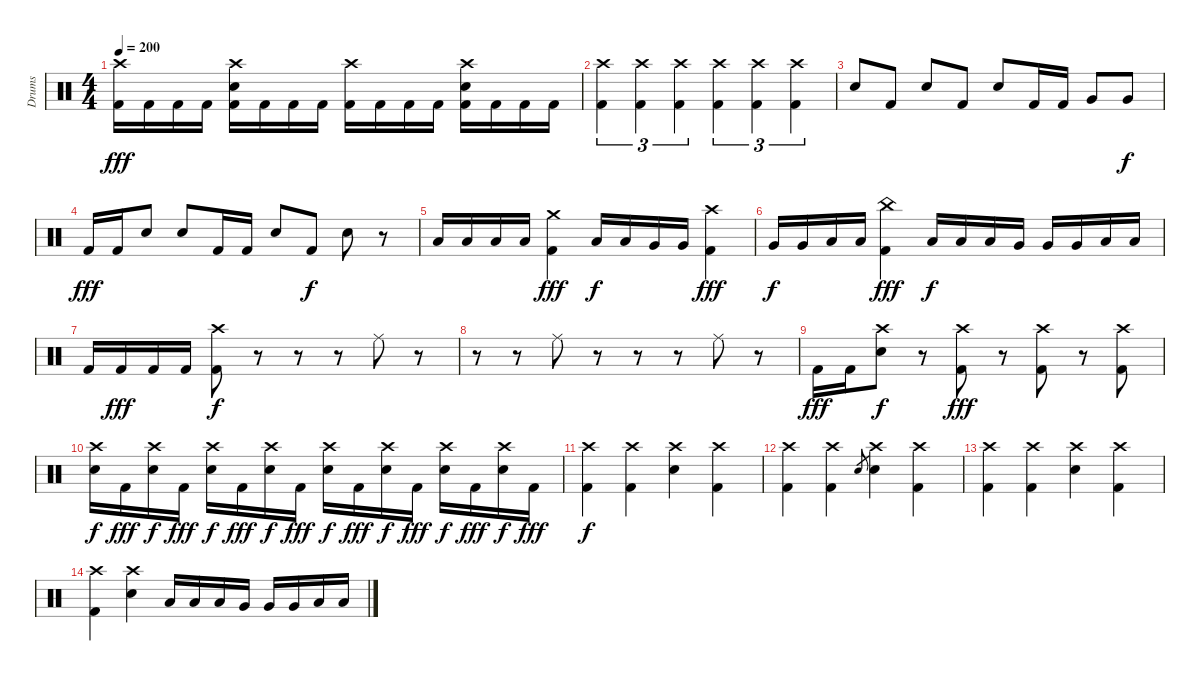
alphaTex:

\track ("Drums" "Drums") {instrument percussion}
\staff {score}
\articulation defaults
\ts (4 4)
\tempo 200
\clef neutral
\ks c
("Crash high (hit)" "Kick (hit) 2").16{dy fff} "Kick (hit) 2".16 "Kick (hit) 2".16 "Kick (hit) 2".16 ("Crash high (hit)" "Electric Snare (hit)" "Kick (hit) 2").16 "Kick (hit) 2".16 "Kick (hit) 2".16 "Kick (hit) 2".16 ("Crash high (hit)" "Kick (hit) 2").16 "Kick (hit) 2".16 "Kick (hit) 2".16 "Kick (hit) 2".16 ("Crash high (hit)" "Electric Snare (hit)" "Kick (hit) 2").16 "Kick (hit) 2".16 "Kick (hit) 2".16 "Kick (hit) 2".16 |
("Crash high (hit)" "Kick (hit) 2").4{tu (3 2)} ("Crash high (hit)" "Kick (hit) 2").4{tu (3 2)} ("Crash high (hit)" "Kick (hit) 2").4{tu (3 2)} ("Crash high (hit)" "Kick (hit) 2").4{tu (3 2)} ("Crash high (hit)" "Kick (hit) 2").4{tu (3 2)} ("Crash high (hit)" "Kick (hit) 2").4{tu (3 2)} |
"Electric Snare (hit)".8 "Kick (hit) 2".8 "Electric Snare (hit)".8 "Kick (hit) 2".8 "Electric Snare (hit)".8 "Kick (hit) 2".16 "Kick (hit) 2".16 "Very Low Tom (hit)".8 "Very Low Tom (hit)".8{dy f} |
"Kick (hit) 2".16{dy fff} "Kick (hit) 2".16 "Electric Snare (hit)".8 "Electric Snare (hit)".8 "Kick (hit) 2".16 "Kick (hit) 2".16 "Electric Snare (hit)".8 "Kick (hit) 2".8{dy f} "Electric Snare (hit)".8 r.8 |
"Low Floor Tom (hit)".16 "Low Floor Tom (hit)".16 "Low Floor Tom (hit)".16 "Low Floor Tom (hit)".16 ("Crash medium (hit)" "Kick (hit) 2").4{dy fff} "Low Tom (hit)".16{dy f} "Low Tom (hit)".16 "Very Low Tom (hit)".16 "Very Low Tom (hit)".16 ("Crash high (hit)" "Kick (hit) 2").4{dy fff} |
"Very Low Tom (hit)".16{dy f} "Very Low Tom (hit)".16 "Low Floor Tom (hit)".16 "Low Floor Tom (hit)".16 ("China (hit)" "Kick (hit) 2").4{dy fff} "Low Tom (hit)".16{dy f} "Low Tom (hit)".16 "Low Tom (hit)".16 "Very Low Tom (hit)".16 "Very Low Tom (hit)".16 "Very Low Tom (hit)".16 "Low Floor Tom (hit)".16 "Low Floor Tom (hit)".16 |
"Kick (hit) 2".16 "Kick (hit) 2".16{dy fff} "Kick (hit) 2".16 "Kick (hit) 2".16 ("Crash high (hit)" "Kick (hit) 2").8{dy f} r.8 r.8 r.8 "Ride (middle)".8 r.8 |
r.8 r.8 "Ride (middle)".8 r.8 r.8 r.8 "Ride (middle)".8 r.8 |
"Kick (hit) 2".16{dy fff} "Kick (hit) 2".16 ("Crash high (hit)" "Electric Snare (hit)").8{dy f} r.8 ("Crash high (hit)" "Kick (hit) 2").8{dy fff} r.8 ("Crash high (hit)" "Kick (hit) 2").8 r.8 ("Crash high (hit)" "Kick (hit) 2").8 |
("Crash high (hit)" "Electric Snare (hit)").16{dy f} "Kick (hit) 2".16{dy fff} ("Crash high (hit)" "Electric Snare (hit)").16{dy f} "Kick (hit) 2".16{dy fff} ("Crash high (hit)" "Electric Snare (hit)").16{dy f} "Kick (hit) 2".16{dy fff} ("Crash high (hit)" "Electric Snare (hit)").16{dy f} "Kick (hit) 2".16{dy fff} ("Crash high (hit)" "Electric Snare (hit)").16{dy f} "Kick (hit) 2".16{dy fff} ("Crash high (hit)" "Electric Snare (hit)").16{dy f} "Kick (hit) 2".16{dy fff} ("Crash high (hit)" "Electric Snare (hit)").16{dy f} "Kick (hit) 2".16{dy fff} ("Crash high (hit)" "Electric Snare (hit)").16{dy f} "Kick (hit) 2".16{dy fff} |
("Crash high (hit)" "Kick (hit) 2").4{dy f} ("Crash high (hit)" "Kick (hit) 2").4 ("Crash high (hit)" "Electric Snare (hit)").4 ("Crash high (hit)" "Kick (hit) 2").4 |
("Crash high (hit)" "Kick (hit) 2").4 ("Crash high (hit)" "Kick (hit) 2").4 "Electric Snare (hit)".8{gr} ("Crash high (hit)" "Electric Snare (hit)").4 ("Crash high (hit)" "Kick (hit) 2").4 |
("Crash high (hit)" "Kick (hit) 2").4 ("Crash high (hit)" "Kick (hit) 2").4 ("Crash high (hit)" "Electric Snare (hit)").4 ("Crash high (hit)" "Kick (hit) 2").4 |
("Crash high (hit)" "Kick (hit) 2").4 ("Crash high (hit)" "Electric Snare (hit)").4 "Low Tom (hit)".16 "Low Tom (hit)".16 "Low Tom (hit)".16 "Very Low Tom (hit)".16 "Very Low Tom (hit)".16 "Very Low Tom (hit)".16 "Low Floor Tom (hit)".16 "Low Floor Tom (hit)".16
